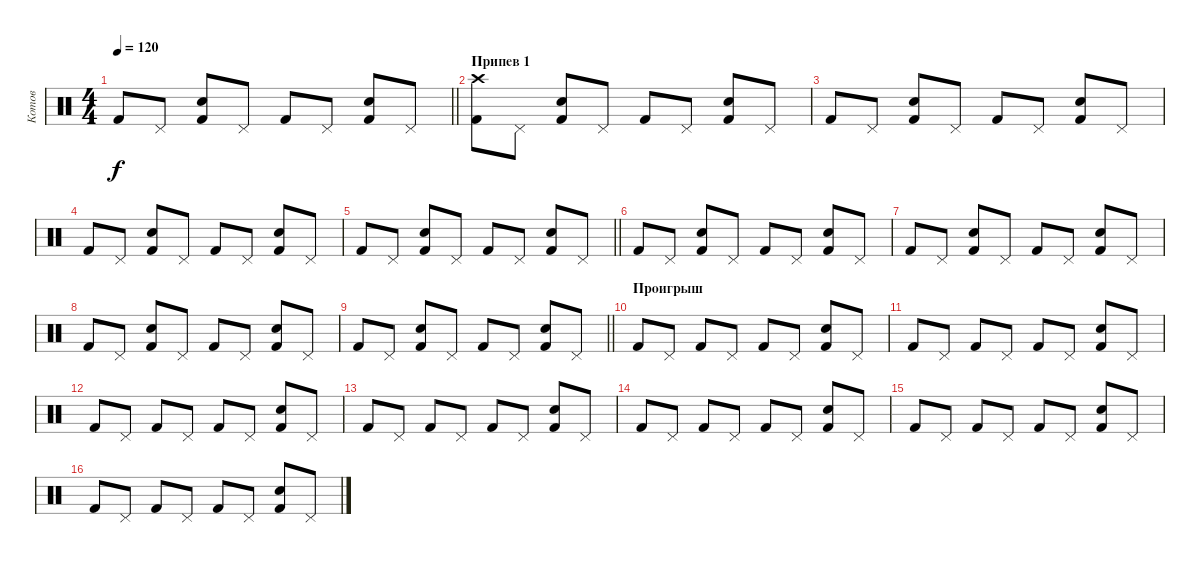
\track ("Котов" "Котов") {instrument percussion}
\staff {score}
\articulation defaults
\ts (4 4)
\tempo 120
\clef neutral
\barLineRight lightlight
\ks c "Kick (hit) 2".8{dy f} "Pedal Hi-Hat (hit)".8
("Kick (hit) 2" "Snare (hit) 2").8 "Pedal Hi-Hat (hit)".8 "Kick (hit) 2".8 "Pedal Hi-Hat (hit)".8 ("Kick (hit) 2" "Snare (hit) 2").8 "Pedal Hi-Hat (hit)".8 |
\section ("" "Припев 1")
("Kick (hit) 2" "Crash high (hit)").8 "Pedal Hi-Hat (hit)".8 ("Kick (hit) 2" "Snare (hit) 2").8 "Pedal Hi-Hat (hit)".8 "Kick (hit) 2".8 "Pedal Hi-Hat (hit)".8 ("Kick (hit) 2" "Snare (hit) 2").8 "Pedal Hi-Hat (hit)".8 |
"Kick (hit) 2".8 "Pedal Hi-Hat (hit)".8 ("Kick (hit) 2" "Snare (hit) 2").8 "Pedal Hi-Hat (hit)".8 "Kick (hit) 2".8 "Pedal Hi-Hat (hit)".8 ("Kick (hit) 2" "Snare (hit) 2").8 "Pedal Hi-Hat (hit)".8 |
"Kick (hit) 2".8 "Pedal Hi-Hat (hit)".8 ("Kick (hit) 2" "Snare (hit) 2").8 "Pedal Hi-Hat (hit)".8 "Kick (hit) 2".8 "Pedal Hi-Hat (hit)".8 ("Kick (hit) 2" "Snare (hit) 2").8 "Pedal Hi-Hat (hit)".8 |
\barLineRight lightlight "Kick (hit) 2".8 "Pedal Hi-Hat (hit)".8
("Kick (hit) 2" "Snare (hit) 2").8 "Pedal Hi-Hat (hit)".8 "Kick (hit) 2".8 "Pedal Hi-Hat (hit)".8 ("Kick (hit) 2" "Snare (hit) 2").8 "Pedal Hi-Hat (hit)".8 |
"Kick (hit) 2".8 "Pedal Hi-Hat (hit)".8 ("Kick (hit) 2" "Snare (hit) 2").8 "Pedal Hi-Hat (hit)".8 "Kick (hit) 2".8 "Pedal Hi-Hat (hit)".8 ("Kick (hit) 2" "Snare (hit) 2").8 "Pedal Hi-Hat (hit)".8 |
"Kick (hit) 2".8 "Pedal Hi-Hat (hit)".8 ("Kick (hit) 2" "Snare (hit) 2").8 "Pedal Hi-Hat (hit)".8 "Kick (hit) 2".8 "Pedal Hi-Hat (hit)".8 ("Kick (hit) 2" "Snare (hit) 2").8 "Pedal Hi-Hat (hit)".8 |
"Kick (hit) 2".8 "Pedal Hi-Hat (hit)".8 ("Kick (hit) 2" "Snare (hit) 2").8 "Pedal Hi-Hat (hit)".8 "Kick (hit) 2".8 "Pedal Hi-Hat (hit)".8 ("Kick (hit) 2" "Snare (hit) 2").8 "Pedal Hi-Hat (hit)".8 |
\barLineRight lightlight "Kick (hit) 2".8 "Pedal Hi-Hat (hit)".8
("Kick (hit) 2" "Snare (hit) 2").8 "Pedal Hi-Hat (hit)".8 "Kick (hit) 2".8 "Pedal Hi-Hat (hit)".8 ("Kick (hit) 2" "Snare (hit) 2").8 "Pedal Hi-Hat (hit)".8 |
\section ("" "Проигрыш")
"Kick (hit) 2".8 "Pedal Hi-Hat (hit)".8 "Kick (hit) 2".8 "Pedal Hi-Hat (hit)".8 "Kick (hit) 2".8 "Pedal Hi-Hat (hit)".8 ("Kick (hit) 2" "Snare (hit) 2").8 "Pedal Hi-Hat (hit)".8 |
"Kick (hit) 2".8 "Pedal Hi-Hat (hit)".8 "Kick (hit) 2".8 "Pedal Hi-Hat (hit)".8 "Kick (hit) 2".8 "Pedal Hi-Hat (hit)".8 ("Kick (hit) 2" "Snare (hit) 2").8 "Pedal Hi-Hat (hit)".8 |
"Kick (hit) 2".8 "Pedal Hi-Hat (hit)".8 "Kick (hit) 2".8 "Pedal Hi-Hat (hit)".8 "Kick (hit) 2".8 "Pedal Hi-Hat (hit)".8 ("Kick (hit) 2" "Snare (hit) 2").8 "Pedal Hi-Hat (hit)".8 |
"Kick (hit) 2".8 "Pedal Hi-Hat (hit)".8 "Kick (hit) 2".8 "Pedal Hi-Hat (hit)".8 "Kick (hit) 2".8 "Pedal Hi-Hat (hit)".8 ("Kick (hit) 2" "Snare (hit) 2").8 "Pedal Hi-Hat (hit)".8 |
"Kick (hit) 2".8 "Pedal Hi-Hat (hit)".8 "Kick (hit) 2".8 "Pedal Hi-Hat (hit)".8 "Kick (hit) 2".8 "Pedal Hi-Hat (hit)".8 ("Kick (hit) 2" "Snare (hit) 2").8 "Pedal Hi-Hat (hit)".8 |
"Kick (hit) 2".8 "Pedal Hi-Hat (hit)".8 "Kick (hit) 2".8 "Pedal Hi-Hat (hit)".8 "Kick (hit) 2".8 "Pedal Hi-Hat (hit)".8 ("Kick (hit) 2" "Snare (hit) 2").8 "Pedal Hi-Hat (hit)".8 |
"Kick (hit) 2".8 "Pedal Hi-Hat (hit)".8 "Kick (hit) 2".8 "Pedal Hi-Hat (hit)".8 "Kick (hit) 2".8 "Pedal Hi-Hat (hit)".8 ("Kick (hit) 2" "Snare (hit) 2").8 "Pedal Hi-Hat (hit)".8
